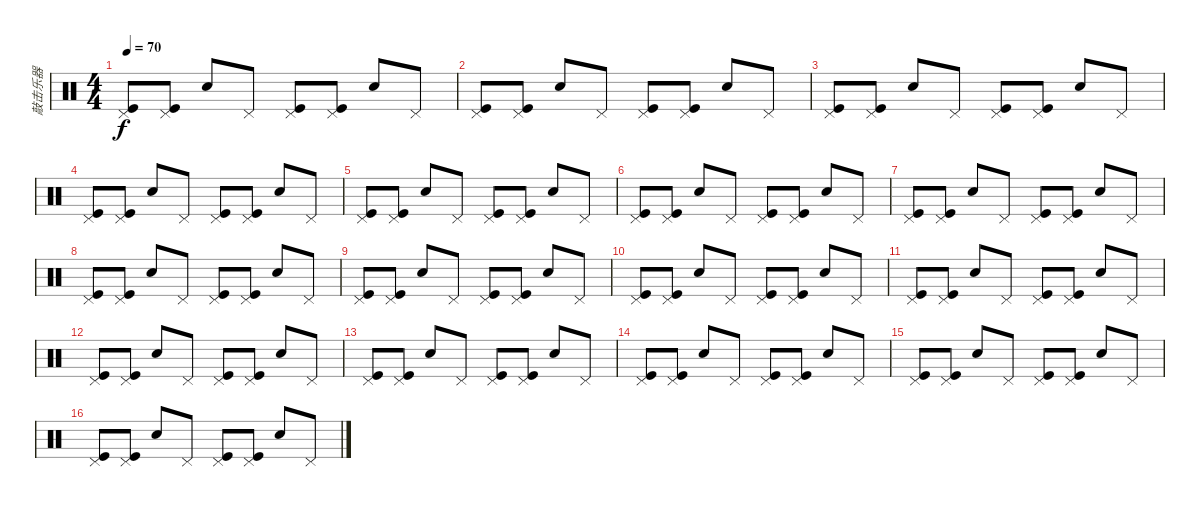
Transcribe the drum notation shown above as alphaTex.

\track ("敲击乐器" "敲击乐器") {instrument percussion}
\staff {score}
\articulation defaults
\ts (4 4)
\tempo 70
\clef neutral
\ks c
("Pedal Hi-Hat (hit)" "Kick (hit)").8{dy f} ("Pedal Hi-Hat (hit)" "Kick (hit)").8 "Snare (hit) 2".8 "Pedal Hi-Hat (hit)".8 ("Pedal Hi-Hat (hit)" "Kick (hit)").8 ("Pedal Hi-Hat (hit)" "Kick (hit)").8 "Snare (hit) 2".8 "Pedal Hi-Hat (hit)".8 |
("Pedal Hi-Hat (hit)" "Kick (hit)").8 ("Pedal Hi-Hat (hit)" "Kick (hit)").8 "Snare (hit) 2".8 "Pedal Hi-Hat (hit)".8 ("Pedal Hi-Hat (hit)" "Kick (hit)").8 ("Pedal Hi-Hat (hit)" "Kick (hit)").8 "Snare (hit) 2".8 "Pedal Hi-Hat (hit)".8 |
("Pedal Hi-Hat (hit)" "Kick (hit)").8 ("Pedal Hi-Hat (hit)" "Kick (hit)").8 "Snare (hit) 2".8 "Pedal Hi-Hat (hit)".8 ("Pedal Hi-Hat (hit)" "Kick (hit)").8 ("Pedal Hi-Hat (hit)" "Kick (hit)").8 "Snare (hit) 2".8 "Pedal Hi-Hat (hit)".8 |
("Pedal Hi-Hat (hit)" "Kick (hit)").8 ("Pedal Hi-Hat (hit)" "Kick (hit)").8 "Snare (hit) 2".8 "Pedal Hi-Hat (hit)".8 ("Pedal Hi-Hat (hit)" "Kick (hit)").8 ("Pedal Hi-Hat (hit)" "Kick (hit)").8 "Snare (hit) 2".8 "Pedal Hi-Hat (hit)".8 |
("Pedal Hi-Hat (hit)" "Kick (hit)").8 ("Pedal Hi-Hat (hit)" "Kick (hit)").8 "Snare (hit) 2".8 "Pedal Hi-Hat (hit)".8 ("Pedal Hi-Hat (hit)" "Kick (hit)").8 ("Pedal Hi-Hat (hit)" "Kick (hit)").8 "Snare (hit) 2".8 "Pedal Hi-Hat (hit)".8 |
("Pedal Hi-Hat (hit)" "Kick (hit)").8 ("Pedal Hi-Hat (hit)" "Kick (hit)").8 "Snare (hit) 2".8 "Pedal Hi-Hat (hit)".8 ("Pedal Hi-Hat (hit)" "Kick (hit)").8 ("Pedal Hi-Hat (hit)" "Kick (hit)").8 "Snare (hit) 2".8 "Pedal Hi-Hat (hit)".8 |
("Pedal Hi-Hat (hit)" "Kick (hit)").8 ("Pedal Hi-Hat (hit)" "Kick (hit)").8 "Snare (hit) 2".8 "Pedal Hi-Hat (hit)".8 ("Pedal Hi-Hat (hit)" "Kick (hit)").8 ("Pedal Hi-Hat (hit)" "Kick (hit)").8 "Snare (hit) 2".8 "Pedal Hi-Hat (hit)".8 |
("Pedal Hi-Hat (hit)" "Kick (hit)").8 ("Pedal Hi-Hat (hit)" "Kick (hit)").8 "Snare (hit) 2".8 "Pedal Hi-Hat (hit)".8 ("Pedal Hi-Hat (hit)" "Kick (hit)").8 ("Pedal Hi-Hat (hit)" "Kick (hit)").8 "Snare (hit) 2".8 "Pedal Hi-Hat (hit)".8 |
("Pedal Hi-Hat (hit)" "Kick (hit)").8 ("Pedal Hi-Hat (hit)" "Kick (hit)").8 "Snare (hit) 2".8 "Pedal Hi-Hat (hit)".8 ("Pedal Hi-Hat (hit)" "Kick (hit)").8 ("Pedal Hi-Hat (hit)" "Kick (hit)").8 "Snare (hit) 2".8 "Pedal Hi-Hat (hit)".8 |
("Pedal Hi-Hat (hit)" "Kick (hit)").8 ("Pedal Hi-Hat (hit)" "Kick (hit)").8 "Snare (hit) 2".8 "Pedal Hi-Hat (hit)".8 ("Pedal Hi-Hat (hit)" "Kick (hit)").8 ("Pedal Hi-Hat (hit)" "Kick (hit)").8 "Snare (hit) 2".8 "Pedal Hi-Hat (hit)".8 |
("Pedal Hi-Hat (hit)" "Kick (hit)").8 ("Pedal Hi-Hat (hit)" "Kick (hit)").8 "Snare (hit) 2".8 "Pedal Hi-Hat (hit)".8 ("Pedal Hi-Hat (hit)" "Kick (hit)").8 ("Pedal Hi-Hat (hit)" "Kick (hit)").8 "Snare (hit) 2".8 "Pedal Hi-Hat (hit)".8 |
("Pedal Hi-Hat (hit)" "Kick (hit)").8 ("Pedal Hi-Hat (hit)" "Kick (hit)").8 "Snare (hit) 2".8 "Pedal Hi-Hat (hit)".8 ("Pedal Hi-Hat (hit)" "Kick (hit)").8 ("Pedal Hi-Hat (hit)" "Kick (hit)").8 "Snare (hit) 2".8 "Pedal Hi-Hat (hit)".8 |
("Pedal Hi-Hat (hit)" "Kick (hit)").8 ("Pedal Hi-Hat (hit)" "Kick (hit)").8 "Snare (hit) 2".8 "Pedal Hi-Hat (hit)".8 ("Pedal Hi-Hat (hit)" "Kick (hit)").8 ("Pedal Hi-Hat (hit)" "Kick (hit)").8 "Snare (hit) 2".8 "Pedal Hi-Hat (hit)".8 |
("Pedal Hi-Hat (hit)" "Kick (hit)").8 ("Pedal Hi-Hat (hit)" "Kick (hit)").8 "Snare (hit) 2".8 "Pedal Hi-Hat (hit)".8 ("Pedal Hi-Hat (hit)" "Kick (hit)").8 ("Pedal Hi-Hat (hit)" "Kick (hit)").8 "Snare (hit) 2".8 "Pedal Hi-Hat (hit)".8 |
("Pedal Hi-Hat (hit)" "Kick (hit)").8 ("Pedal Hi-Hat (hit)" "Kick (hit)").8 "Snare (hit) 2".8 "Pedal Hi-Hat (hit)".8 ("Pedal Hi-Hat (hit)" "Kick (hit)").8 ("Pedal Hi-Hat (hit)" "Kick (hit)").8 "Snare (hit) 2".8 "Pedal Hi-Hat (hit)".8 |
("Pedal Hi-Hat (hit)" "Kick (hit)").8 ("Pedal Hi-Hat (hit)" "Kick (hit)").8 "Snare (hit) 2".8 "Pedal Hi-Hat (hit)".8 ("Pedal Hi-Hat (hit)" "Kick (hit)").8 ("Pedal Hi-Hat (hit)" "Kick (hit)").8 "Snare (hit) 2".8 "Pedal Hi-Hat (hit)".8
